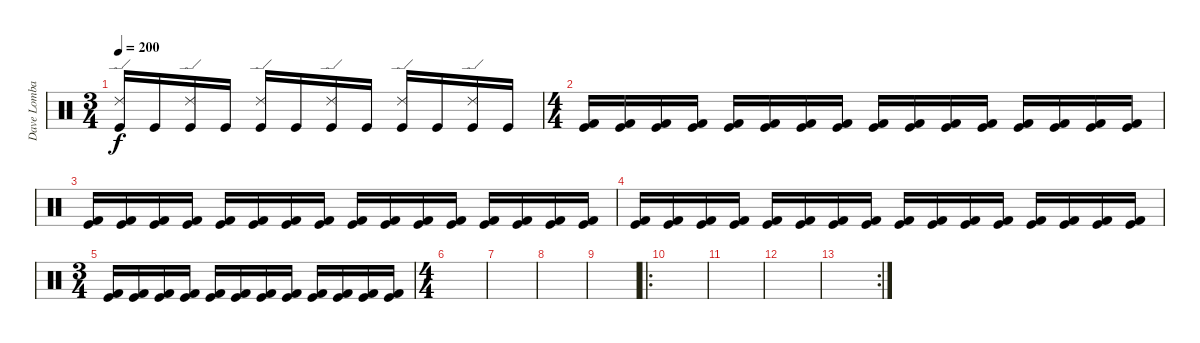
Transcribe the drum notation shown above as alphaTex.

\track ("Dave Lombardo:" "Dave Lomba") {instrument percussion}
\staff {score}
\articulation defaults
\ts (3 4)
\tempo 200
\clef neutral
\ks c
("Ride (edge) 2" "Kick (hit)").16{dy f} "Kick (hit)".16 ("Ride (edge) 2" "Kick (hit)").16 "Kick (hit)".16 ("Ride (edge) 2" "Kick (hit)").16 "Kick (hit)".16 ("Ride (edge) 2" "Kick (hit)").16 "Kick (hit)".16 ("Ride (edge) 2" "Kick (hit)").16 "Kick (hit)".16 ("Ride (edge) 2" "Kick (hit)").16 "Kick (hit)".16 |
\ts (4 4)
("Kick (hit) 2" "Kick (hit)").16 ("Kick (hit) 2" "Kick (hit)").16 ("Kick (hit) 2" "Kick (hit)").16 ("Kick (hit) 2" "Kick (hit)").16 ("Kick (hit) 2" "Kick (hit)").16 ("Kick (hit) 2" "Kick (hit)").16 ("Kick (hit) 2" "Kick (hit)").16 ("Kick (hit) 2" "Kick (hit)").16 ("Kick (hit) 2" "Kick (hit)").16 ("Kick (hit) 2" "Kick (hit)").16 ("Kick (hit) 2" "Kick (hit)").16 ("Kick (hit) 2" "Kick (hit)").16 ("Kick (hit) 2" "Kick (hit)").16 ("Kick (hit) 2" "Kick (hit)").16 ("Kick (hit) 2" "Kick (hit)").16 ("Kick (hit) 2" "Kick (hit)").16 |
("Kick (hit) 2" "Kick (hit)").16 ("Kick (hit) 2" "Kick (hit)").16 ("Kick (hit) 2" "Kick (hit)").16 ("Kick (hit) 2" "Kick (hit)").16 ("Kick (hit) 2" "Kick (hit)").16 ("Kick (hit) 2" "Kick (hit)").16 ("Kick (hit) 2" "Kick (hit)").16 ("Kick (hit) 2" "Kick (hit)").16 ("Kick (hit) 2" "Kick (hit)").16 ("Kick (hit) 2" "Kick (hit)").16 ("Kick (hit) 2" "Kick (hit)").16 ("Kick (hit) 2" "Kick (hit)").16 ("Kick (hit) 2" "Kick (hit)").16 ("Kick (hit) 2" "Kick (hit)").16 ("Kick (hit) 2" "Kick (hit)").16 ("Kick (hit) 2" "Kick (hit)").16 |
("Kick (hit) 2" "Kick (hit)").16 ("Kick (hit) 2" "Kick (hit)").16 ("Kick (hit) 2" "Kick (hit)").16 ("Kick (hit) 2" "Kick (hit)").16 ("Kick (hit) 2" "Kick (hit)").16 ("Kick (hit) 2" "Kick (hit)").16 ("Kick (hit) 2" "Kick (hit)").16 ("Kick (hit) 2" "Kick (hit)").16 ("Kick (hit) 2" "Kick (hit)").16 ("Kick (hit) 2" "Kick (hit)").16 ("Kick (hit) 2" "Kick (hit)").16 ("Kick (hit) 2" "Kick (hit)").16 ("Kick (hit) 2" "Kick (hit)").16 ("Kick (hit) 2" "Kick (hit)").16 ("Kick (hit) 2" "Kick (hit)").16 ("Kick (hit) 2" "Kick (hit)").16 |
\ts (3 4)
("Kick (hit) 2" "Kick (hit)").16 ("Kick (hit) 2" "Kick (hit)").16 ("Kick (hit) 2" "Kick (hit)").16 ("Kick (hit) 2" "Kick (hit)").16 ("Kick (hit) 2" "Kick (hit)").16 ("Kick (hit) 2" "Kick (hit)").16 ("Kick (hit) 2" "Kick (hit)").16 ("Kick (hit) 2" "Kick (hit)").16 ("Kick (hit) 2" "Kick (hit)").16 ("Kick (hit) 2" "Kick (hit)").16 ("Kick (hit) 2" "Kick (hit)").16 ("Kick (hit) 2" "Kick (hit)").16 |
\ts (4 4)
|
|
|
|
\ro
|
|
|
\rc 2
